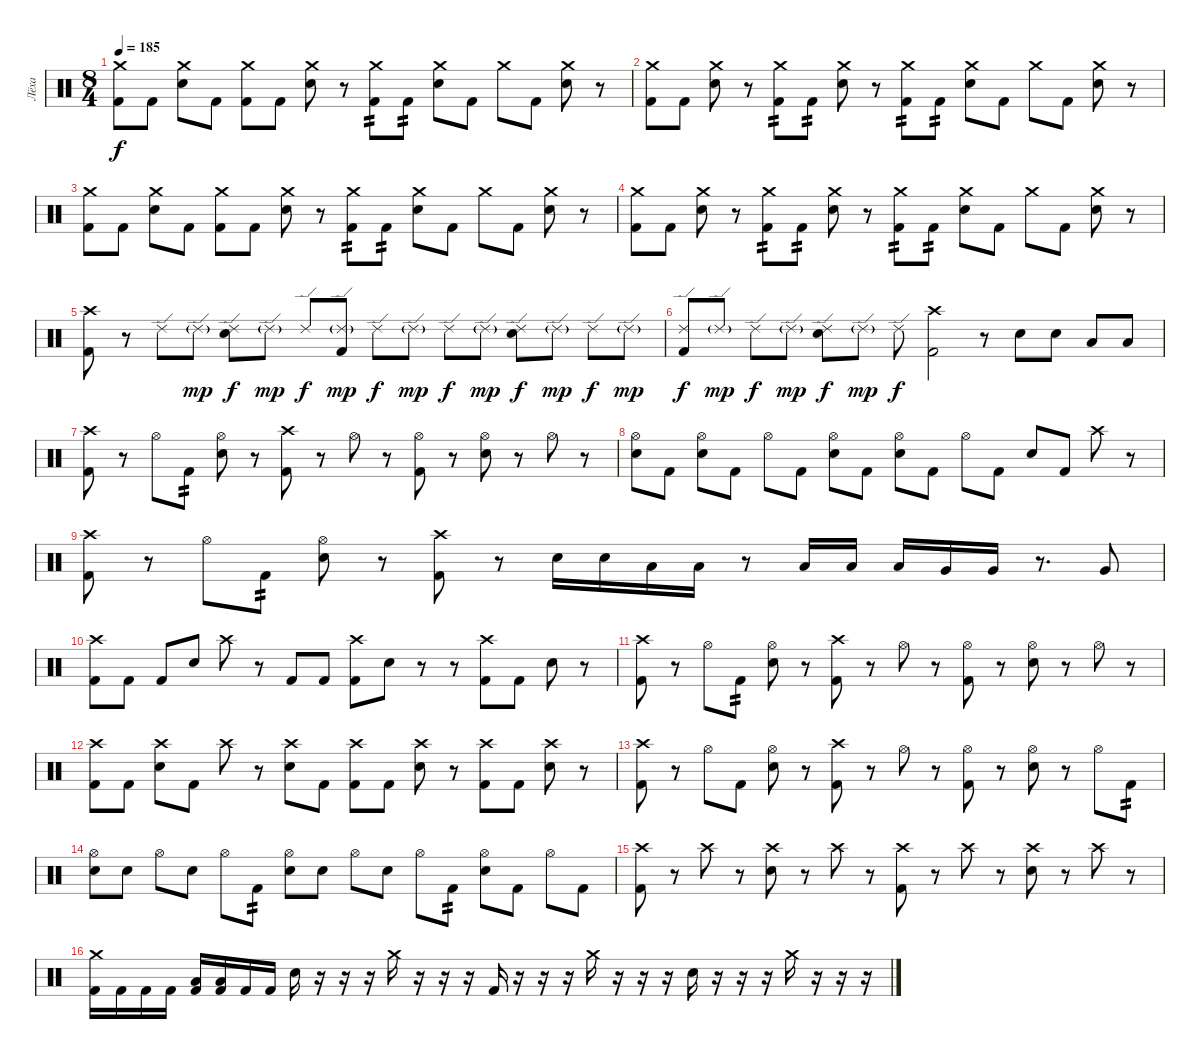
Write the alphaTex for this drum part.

\track ("Лёха" "Лёха") {instrument percussion}
\staff {score}
\articulation defaults
\ts (8 4)
\tempo 185
\clef neutral
\ks c
("Crash medium (hit)" "Kick (hit) 2").8{dy f} "Kick (hit) 2".8 ("Crash medium (hit)" "Electric Snare (hit)").8 "Kick (hit) 2".8 ("Crash medium (hit)" "Kick (hit) 2").8 "Kick (hit) 2".8 ("Crash medium (hit)" "Electric Snare (hit)").8 r.8 ("Crash medium (hit)" "Kick (hit) 2").8{tp 2} "Kick (hit) 2".8{tp 2} ("Crash medium (hit)" "Electric Snare (hit)").8 "Kick (hit) 2".8 "Crash medium (hit)".8 "Kick (hit) 2".8 ("Crash medium (hit)" "Electric Snare (hit)").8 r.8 |
("Crash medium (hit)" "Kick (hit) 2").8 "Kick (hit) 2".8 ("Crash medium (hit)" "Electric Snare (hit)").8 r.8 ("Crash medium (hit)" "Kick (hit) 2").8{tp 2} "Kick (hit) 2".8{tp 2} ("Crash medium (hit)" "Electric Snare (hit)").8 r.8 ("Crash medium (hit)" "Kick (hit) 2").8{tp 2} "Kick (hit) 2".8{tp 2} ("Crash medium (hit)" "Electric Snare (hit)").8 "Kick (hit) 2".8 "Crash medium (hit)".8 "Kick (hit) 2".8 ("Crash medium (hit)" "Electric Snare (hit)").8 r.8 |
("Crash medium (hit)" "Kick (hit) 2").8 "Kick (hit) 2".8 ("Crash medium (hit)" "Electric Snare (hit)").8 "Kick (hit) 2".8 ("Crash medium (hit)" "Kick (hit) 2").8 "Kick (hit) 2".8 ("Crash medium (hit)" "Electric Snare (hit)").8 r.8 ("Crash medium (hit)" "Kick (hit) 2").8{tp 2} "Kick (hit) 2".8{tp 2} ("Crash medium (hit)" "Electric Snare (hit)").8 "Kick (hit) 2".8 "Crash medium (hit)".8 "Kick (hit) 2".8 ("Crash medium (hit)" "Electric Snare (hit)").8 r.8 |
("Crash medium (hit)" "Kick (hit) 2").8 "Kick (hit) 2".8 ("Crash medium (hit)" "Electric Snare (hit)").8 r.8 ("Crash medium (hit)" "Kick (hit) 2").8{tp 2} "Kick (hit) 2".8{tp 2} ("Crash medium (hit)" "Electric Snare (hit)").8 r.8 ("Crash medium (hit)" "Kick (hit) 2").8{tp 2} "Kick (hit) 2".8{tp 2} ("Crash medium (hit)" "Electric Snare (hit)").8 "Kick (hit) 2".8 "Crash medium (hit)".8 "Kick (hit) 2".8 ("Crash medium (hit)" "Electric Snare (hit)").8 r.8 |
("Crash high (hit)" "Kick (hit) 2").8 r.8 "Ride (edge) 2".8 "Ride (edge) 2"{g}.8{dy mp} ("Ride (edge) 2" "Electric Snare (hit)").8{dy f} "Ride (edge) 2"{g}.8{dy mp} "Ride (edge) 2".8{dy f} ("Ride (edge) 2"{g} "Kick (hit) 2").8{dy mp} "Ride (edge) 2".8{dy f} "Ride (edge) 2"{g}.8{dy mp} "Ride (edge) 2".8{dy f} "Ride (edge) 2"{g}.8{dy mp} ("Ride (edge) 2" "Electric Snare (hit)").8{dy f} "Ride (edge) 2"{g}.8{dy mp} "Ride (edge) 2".8{dy f} "Ride (edge) 2"{g}.8{dy mp} |
("Ride (edge) 2" "Kick (hit) 2").8{dy f} "Ride (edge) 2"{g}.8{dy mp} "Ride (edge) 2".8{dy f} "Ride (edge) 2"{g}.8{dy mp} ("Ride (edge) 2" "Electric Snare (hit)").8{dy f} "Ride (edge) 2"{g}.8{dy mp} "Ride (edge) 2".8{dy f} ("Crash high (hit)" "Kick (hit) 2").2 r.8 "Electric Snare (hit)".8 "Electric Snare (hit)".8 "Low Tom (hit)".8 "Low Tom (hit)".8 |
("Crash high (hit)" "Kick (hit) 2").8 r.8 "Hi-Hat (open)".8 "Kick (hit) 2".8{tp 2} ("Hi-Hat (open)" "Electric Snare (hit)").8 r.8 ("Crash high (hit)" "Kick (hit) 2").8 r.8 "Hi-Hat (open)".8 r.8 ("Hi-Hat (open)" "Kick (hit) 2").8 r.8 ("Hi-Hat (open)" "Electric Snare (hit)").8 r.8 "Hi-Hat (open)".8 r.8 |
("Hi-Hat (open)" "Electric Snare (hit)").8 "Kick (hit) 2".8 ("Hi-Hat (open)" "Electric Snare (hit)").8 "Kick (hit) 2".8 "Hi-Hat (open)".8 "Kick (hit) 2".8 ("Hi-Hat (open)" "Electric Snare (hit)").8 "Kick (hit) 2".8 ("Hi-Hat (open)" "Electric Snare (hit)").8 "Kick (hit) 2".8 "Hi-Hat (open)".8 "Kick (hit) 2".8 "Electric Snare (hit)".8 "Kick (hit) 2".8 "Crash high (hit)".8 r.8 |
("Crash high (hit)" "Kick (hit) 2").8 r.8 "Hi-Hat (open)".8 "Kick (hit) 2".8{tp 2} ("Hi-Hat (open)" "Electric Snare (hit)").8 r.8 ("Crash high (hit)" "Kick (hit) 2").8 r.8 "Electric Snare (hit)".16 "Electric Snare (hit)".16 "Low Tom (hit)".16 "Low Tom (hit)".16 r.8 "Low Tom (hit)".16 "Low Tom (hit)".16 "Low Tom (hit)".16 "Very Low Tom (hit)".16 "Very Low Tom (hit)".16 r.8{d} "Very Low Tom (hit)".8 |
("Crash high (hit)" "Kick (hit) 2").8 "Kick (hit) 2".8 "Kick (hit) 2".8 "Electric Snare (hit)".8 "Crash high (hit)".8 r.8 "Kick (hit) 2".8 "Kick (hit) 2".8 ("Crash high (hit)" "Kick (hit) 2").8 "Electric Snare (hit)".8 r.8 r.8 ("Crash high (hit)" "Kick (hit) 2").8 "Kick (hit) 2".8 "Electric Snare (hit)".8 r.8 |
("Crash high (hit)" "Kick (hit) 2").8 r.8 "Hi-Hat (open)".8 "Kick (hit) 2".8{tp 2} ("Hi-Hat (open)" "Electric Snare (hit)").8 r.8 ("Crash high (hit)" "Kick (hit) 2").8 r.8 "Hi-Hat (open)".8 r.8 ("Hi-Hat (open)" "Kick (hit) 2").8 r.8 ("Hi-Hat (open)" "Electric Snare (hit)").8 r.8 "Hi-Hat (open)".8 r.8 |
("Crash high (hit)" "Kick (hit) 2").8 "Kick (hit) 2".8 ("Crash high (hit)" "Electric Snare (hit)").8 "Kick (hit) 2".8 "Crash high (hit)".8 r.8 ("Crash high (hit)" "Electric Snare (hit)").8 "Kick (hit) 2".8 ("Crash high (hit)" "Kick (hit) 2").8 "Kick (hit) 2".8 ("Crash high (hit)" "Electric Snare (hit)").8 r.8 ("Crash high (hit)" "Kick (hit) 2").8 "Kick (hit) 2".8 ("Crash high (hit)" "Electric Snare (hit)").8 r.8 |
("Crash high (hit)" "Kick (hit) 2").8 r.8 "Hi-Hat (open)".8 "Kick (hit) 2".8 ("Hi-Hat (open)" "Electric Snare (hit)").8 r.8 ("Crash high (hit)" "Kick (hit) 2").8 r.8 "Hi-Hat (open)".8 r.8 ("Hi-Hat (open)" "Kick (hit) 2").8 r.8 ("Hi-Hat (open)" "Electric Snare (hit)").8 r.8 "Hi-Hat (open)".8 "Kick (hit) 2".8{tp 2} |
("Hi-Hat (open)" "Electric Snare (hit)").8 "Electric Snare (hit)".8 "Hi-Hat (open)".8 "Electric Snare (hit)".8 "Hi-Hat (open)".8 "Kick (hit) 2".8{tp 2} ("Hi-Hat (open)" "Electric Snare (hit)").8 "Electric Snare (hit)".8 "Hi-Hat (open)".8 "Electric Snare (hit)".8 "Hi-Hat (open)".8 "Kick (hit) 2".8{tp 2} ("Hi-Hat (open)" "Electric Snare (hit)").8 "Kick (hit) 2".8 "Hi-Hat (open)".8 "Kick (hit) 2".8 |
("Crash high (hit)" "Kick (hit) 2").8 r.8 "Crash high (hit)".8 r.8 ("Crash high (hit)" "Electric Snare (hit)").8 r.8 "Crash high (hit)".8 r.8 ("Crash high (hit)" "Kick (hit) 2").8 r.8 "Crash high (hit)".8 r.8 ("Crash high (hit)" "Electric Snare (hit)").8 r.8 "Crash high (hit)".8 r.8 |
("Crash medium (hit)" "Kick (hit) 2").16 "Kick (hit) 2".16 "Kick (hit) 2".16 "Kick (hit) 2".16 ("Low Tom (hit)" "Kick (hit) 2").16 ("Low Tom (hit)" "Kick (hit) 2").16 "Kick (hit) 2".16 "Kick (hit) 2".16 "Electric Snare (hit)".16 r.16 r.16 r.16 "Crash medium (hit)".16 r.16 r.16 r.16 "Kick (hit) 2".16 r.16 r.16 r.16 "Crash medium (hit)".16 r.16 r.16 r.16 "Electric Snare (hit)".16 r.16 r.16 r.16 "Crash medium (hit)".16 r.16 r.16 r.16
